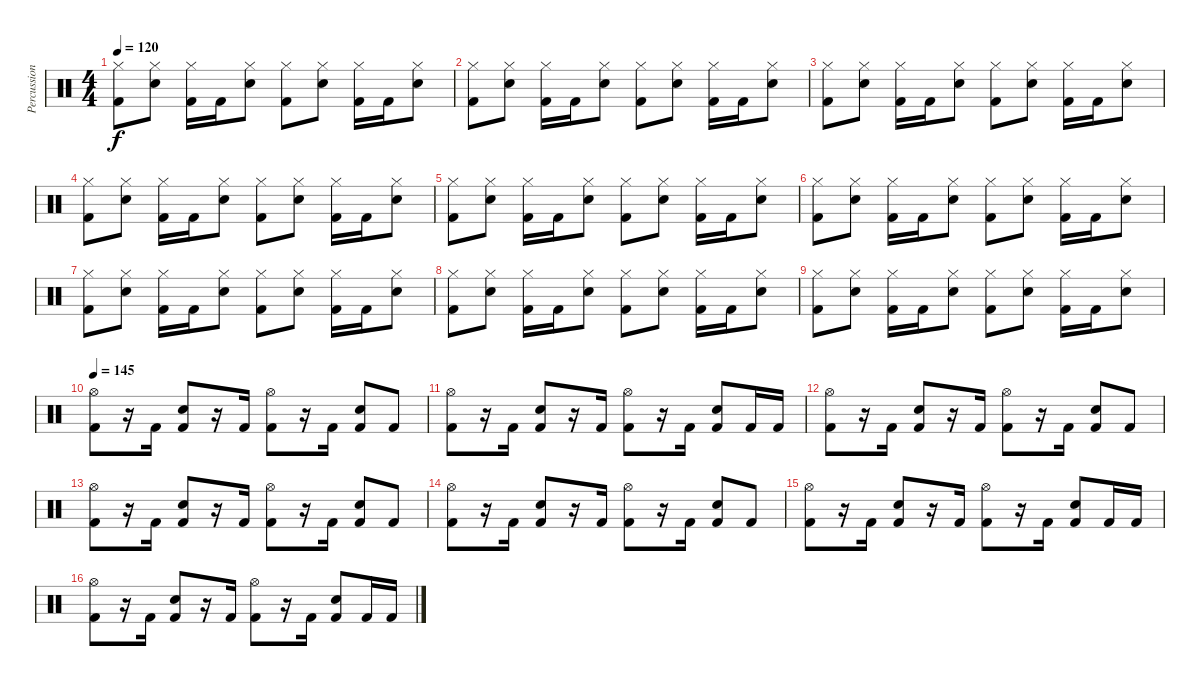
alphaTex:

\track ("Percussions" "Percussion") {instrument percussion}
\staff {score}
\articulation defaults
\ts (4 4)
\tempo 120
\clef neutral
\ks c
("Hi-Hat (closed)" "Kick (hit) 2").8{dy f} ("Hi-Hat (closed)" "Snare (hit) 2").8 ("Hi-Hat (closed)" "Kick (hit) 2").16 "Kick (hit) 2".16 ("Hi-Hat (closed)" "Snare (hit) 2").8 ("Hi-Hat (closed)" "Kick (hit) 2").8 ("Hi-Hat (closed)" "Snare (hit) 2").8 ("Hi-Hat (closed)" "Kick (hit) 2").16 "Kick (hit) 2".16 ("Hi-Hat (closed)" "Snare (hit) 2").8 |
("Hi-Hat (closed)" "Kick (hit) 2").8 ("Hi-Hat (closed)" "Snare (hit) 2").8 ("Hi-Hat (closed)" "Kick (hit) 2").16 "Kick (hit) 2".16 ("Hi-Hat (closed)" "Snare (hit) 2").8 ("Hi-Hat (closed)" "Kick (hit) 2").8 ("Hi-Hat (closed)" "Snare (hit) 2").8 ("Hi-Hat (closed)" "Kick (hit) 2").16 "Kick (hit) 2".16 ("Hi-Hat (closed)" "Snare (hit) 2").8 |
("Hi-Hat (closed)" "Kick (hit) 2").8 ("Hi-Hat (closed)" "Snare (hit) 2").8 ("Hi-Hat (closed)" "Kick (hit) 2").16 "Kick (hit) 2".16 ("Hi-Hat (closed)" "Snare (hit) 2").8 ("Hi-Hat (closed)" "Kick (hit) 2").8 ("Hi-Hat (closed)" "Snare (hit) 2").8 ("Hi-Hat (closed)" "Kick (hit) 2").16 "Kick (hit) 2".16 ("Hi-Hat (closed)" "Snare (hit) 2").8 |
("Hi-Hat (closed)" "Kick (hit) 2").8 ("Hi-Hat (closed)" "Snare (hit) 2").8 ("Hi-Hat (closed)" "Kick (hit) 2").16 "Kick (hit) 2".16 ("Hi-Hat (closed)" "Snare (hit) 2").8 ("Hi-Hat (closed)" "Kick (hit) 2").8 ("Hi-Hat (closed)" "Snare (hit) 2").8 ("Hi-Hat (closed)" "Kick (hit) 2").16 "Kick (hit) 2".16 ("Hi-Hat (closed)" "Snare (hit) 2").8 |
("Hi-Hat (closed)" "Kick (hit) 2").8 ("Hi-Hat (closed)" "Snare (hit) 2").8 ("Hi-Hat (closed)" "Kick (hit) 2").16 "Kick (hit) 2".16 ("Hi-Hat (closed)" "Snare (hit) 2").8 ("Hi-Hat (closed)" "Kick (hit) 2").8 ("Hi-Hat (closed)" "Snare (hit) 2").8 ("Hi-Hat (closed)" "Kick (hit) 2").16 "Kick (hit) 2".16 ("Hi-Hat (closed)" "Snare (hit) 2").8 |
("Hi-Hat (closed)" "Kick (hit) 2").8 ("Hi-Hat (closed)" "Snare (hit) 2").8 ("Hi-Hat (closed)" "Kick (hit) 2").16 "Kick (hit) 2".16 ("Hi-Hat (closed)" "Snare (hit) 2").8 ("Hi-Hat (closed)" "Kick (hit) 2").8 ("Hi-Hat (closed)" "Snare (hit) 2").8 ("Hi-Hat (closed)" "Kick (hit) 2").16 "Kick (hit) 2".16 ("Hi-Hat (closed)" "Snare (hit) 2").8 |
("Hi-Hat (closed)" "Kick (hit) 2").8 ("Hi-Hat (closed)" "Snare (hit) 2").8 ("Hi-Hat (closed)" "Kick (hit) 2").16 "Kick (hit) 2".16 ("Hi-Hat (closed)" "Snare (hit) 2").8 ("Hi-Hat (closed)" "Kick (hit) 2").8 ("Hi-Hat (closed)" "Snare (hit) 2").8 ("Hi-Hat (closed)" "Kick (hit) 2").16 "Kick (hit) 2".16 ("Hi-Hat (closed)" "Snare (hit) 2").8 |
("Hi-Hat (closed)" "Kick (hit) 2").8 ("Hi-Hat (closed)" "Snare (hit) 2").8 ("Hi-Hat (closed)" "Kick (hit) 2").16 "Kick (hit) 2".16 ("Hi-Hat (closed)" "Snare (hit) 2").8 ("Hi-Hat (closed)" "Kick (hit) 2").8 ("Hi-Hat (closed)" "Snare (hit) 2").8 ("Hi-Hat (closed)" "Kick (hit) 2").16 "Kick (hit) 2".16 ("Hi-Hat (closed)" "Snare (hit) 2").8 |
("Hi-Hat (closed)" "Kick (hit) 2").8 ("Hi-Hat (closed)" "Snare (hit) 2").8 ("Hi-Hat (closed)" "Kick (hit) 2").16 "Kick (hit) 2".16 ("Hi-Hat (closed)" "Snare (hit) 2").8 ("Hi-Hat (closed)" "Kick (hit) 2").8 ("Hi-Hat (closed)" "Snare (hit) 2").8 ("Hi-Hat (closed)" "Kick (hit) 2").16 "Kick (hit) 2".16 ("Hi-Hat (closed)" "Snare (hit) 2").8 |
\tempo 145
("Hi-Hat (open)" "Kick (hit) 2").8 r.16 "Kick (hit) 2".16 ("Kick (hit) 2" "Snare (hit) 2").8 r.16 "Kick (hit) 2".16 ("Hi-Hat (open)" "Kick (hit) 2").8 r.16 "Kick (hit) 2".16 ("Kick (hit) 2" "Snare (hit) 2").8 "Kick (hit) 2".8 |
("Hi-Hat (open)" "Kick (hit) 2").8 r.16 "Kick (hit) 2".16 ("Kick (hit) 2" "Snare (hit) 2").8 r.16 "Kick (hit) 2".16 ("Hi-Hat (open)" "Kick (hit) 2").8 r.16 "Kick (hit) 2".16 ("Kick (hit) 2" "Snare (hit) 2").8 "Kick (hit) 2".16 "Kick (hit) 2".16 |
("Hi-Hat (open)" "Kick (hit) 2").8 r.16 "Kick (hit) 2".16 ("Kick (hit) 2" "Snare (hit) 2").8 r.16 "Kick (hit) 2".16 ("Hi-Hat (open)" "Kick (hit) 2").8 r.16 "Kick (hit) 2".16 ("Kick (hit) 2" "Snare (hit) 2").8 "Kick (hit) 2".8 |
("Hi-Hat (open)" "Kick (hit) 2").8 r.16 "Kick (hit) 2".16 ("Kick (hit) 2" "Snare (hit) 2").8 r.16 "Kick (hit) 2".16 ("Hi-Hat (open)" "Kick (hit) 2").8 r.16 "Kick (hit) 2".16 ("Kick (hit) 2" "Snare (hit) 2").8 "Kick (hit) 2".8 |
("Hi-Hat (open)" "Kick (hit) 2").8 r.16 "Kick (hit) 2".16 ("Kick (hit) 2" "Snare (hit) 2").8 r.16 "Kick (hit) 2".16 ("Hi-Hat (open)" "Kick (hit) 2").8 r.16 "Kick (hit) 2".16 ("Kick (hit) 2" "Snare (hit) 2").8 "Kick (hit) 2".8 |
("Hi-Hat (open)" "Kick (hit) 2").8 r.16 "Kick (hit) 2".16 ("Kick (hit) 2" "Snare (hit) 2").8 r.16 "Kick (hit) 2".16 ("Hi-Hat (open)" "Kick (hit) 2").8 r.16 "Kick (hit) 2".16 ("Kick (hit) 2" "Snare (hit) 2").8 "Kick (hit) 2".16 "Kick (hit) 2".16 |
("Hi-Hat (open)" "Kick (hit) 2").8 r.16 "Kick (hit) 2".16 ("Kick (hit) 2" "Snare (hit) 2").8 r.16 "Kick (hit) 2".16 ("Hi-Hat (open)" "Kick (hit) 2").8 r.16 "Kick (hit) 2".16 ("Kick (hit) 2" "Snare (hit) 2").8 "Kick (hit) 2".16 "Kick (hit) 2".16
